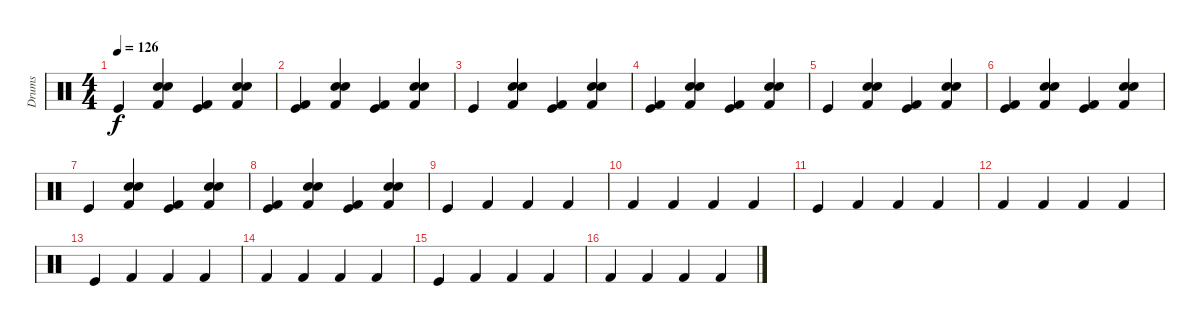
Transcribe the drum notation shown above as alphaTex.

\track ("Drums" "Drums") {instrument percussion}
\staff {score}
\articulation defaults
\ts (4 4)
\tempo 126
\clef neutral
\ks c "Kick (hit)".4{dy f}
("Snare (hit) 2" "Hand Clap (hit)" "Kick (hit) 2").4 ("Kick (hit)" "Kick (hit) 2").4 ("Snare (hit) 2" "Hand Clap (hit)" "Kick (hit) 2").4 |
("Kick (hit)" "Kick (hit) 2").4 ("Snare (hit) 2" "Hand Clap (hit)" "Kick (hit) 2").4 ("Kick (hit)" "Kick (hit) 2").4 ("Snare (hit) 2" "Hand Clap (hit)" "Kick (hit) 2").4 |
"Kick (hit)".4 ("Snare (hit) 2" "Hand Clap (hit)" "Kick (hit) 2").4 ("Kick (hit)" "Kick (hit) 2").4 ("Snare (hit) 2" "Hand Clap (hit)" "Kick (hit) 2").4 |
("Kick (hit)" "Kick (hit) 2").4 ("Snare (hit) 2" "Hand Clap (hit)" "Kick (hit) 2").4 ("Kick (hit)" "Kick (hit) 2").4 ("Snare (hit) 2" "Hand Clap (hit)" "Kick (hit) 2").4 |
"Kick (hit)".4 ("Snare (hit) 2" "Hand Clap (hit)" "Kick (hit) 2").4 ("Kick (hit)" "Kick (hit) 2").4 ("Snare (hit) 2" "Hand Clap (hit)" "Kick (hit) 2").4 |
("Kick (hit)" "Kick (hit) 2").4 ("Snare (hit) 2" "Hand Clap (hit)" "Kick (hit) 2").4 ("Kick (hit)" "Kick (hit) 2").4 ("Snare (hit) 2" "Hand Clap (hit)" "Kick (hit) 2").4 |
"Kick (hit)".4 ("Snare (hit) 2" "Hand Clap (hit)" "Kick (hit) 2").4 ("Kick (hit)" "Kick (hit) 2").4 ("Snare (hit) 2" "Hand Clap (hit)" "Kick (hit) 2").4 |
("Kick (hit)" "Kick (hit) 2").4 ("Snare (hit) 2" "Hand Clap (hit)" "Kick (hit) 2").4 ("Kick (hit)" "Kick (hit) 2").4 ("Snare (hit) 2" "Hand Clap (hit)" "Kick (hit) 2").4 |
"Kick (hit)".4 "Kick (hit) 2".4 "Kick (hit) 2".4 "Kick (hit) 2".4 |
"Kick (hit) 2".4 "Kick (hit) 2".4 "Kick (hit) 2".4 "Kick (hit) 2".4 |
"Kick (hit)".4 "Kick (hit) 2".4 "Kick (hit) 2".4 "Kick (hit) 2".4 |
"Kick (hit) 2".4 "Kick (hit) 2".4 "Kick (hit) 2".4 "Kick (hit) 2".4 |
"Kick (hit)".4 "Kick (hit) 2".4 "Kick (hit) 2".4 "Kick (hit) 2".4 |
"Kick (hit) 2".4 "Kick (hit) 2".4 "Kick (hit) 2".4 "Kick (hit) 2".4 |
"Kick (hit)".4 "Kick (hit) 2".4 "Kick (hit) 2".4 "Kick (hit) 2".4 |
"Kick (hit) 2".4 "Kick (hit) 2".4 "Kick (hit) 2".4 "Kick (hit) 2".4
